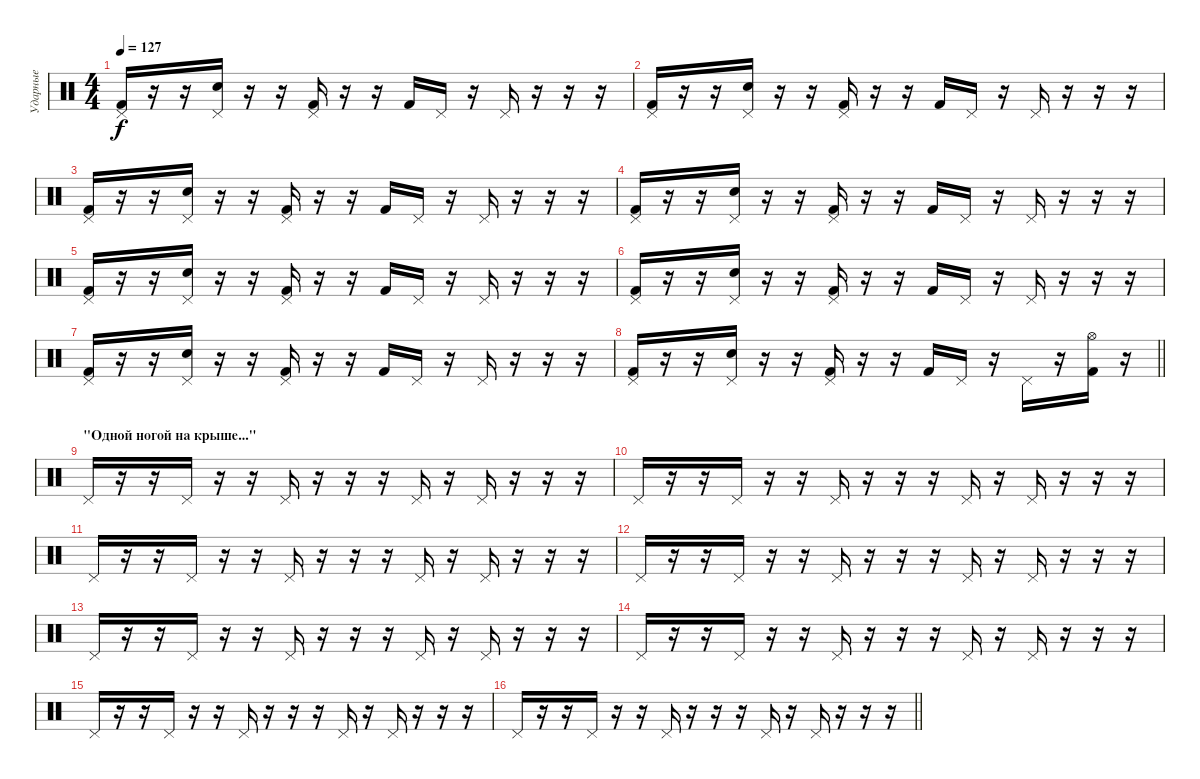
\track ("Ударные" "Ударные") {instrument percussion}
\staff {score}
\articulation defaults
\ts (4 4)
\tempo 127
\clef neutral
\ks c
("Pedal Hi-Hat (hit)" "Kick (hit) 2").16{dy f} r.16 r.16 ("Pedal Hi-Hat (hit)" "Hand Clap (hit)").16 r.16 r.16 ("Pedal Hi-Hat (hit)" "Kick (hit) 2").16 r.16 r.16 "Kick (hit) 2".16 "Pedal Hi-Hat (hit)".16 r.16 "Pedal Hi-Hat (hit)".16 r.16 r.16 r.16 |
("Pedal Hi-Hat (hit)" "Kick (hit) 2").16 r.16 r.16 ("Pedal Hi-Hat (hit)" "Hand Clap (hit)").16 r.16 r.16 ("Pedal Hi-Hat (hit)" "Kick (hit) 2").16 r.16 r.16 "Kick (hit) 2".16 "Pedal Hi-Hat (hit)".16 r.16 "Pedal Hi-Hat (hit)".16 r.16 r.16 r.16 |
("Pedal Hi-Hat (hit)" "Kick (hit) 2").16 r.16 r.16 ("Pedal Hi-Hat (hit)" "Hand Clap (hit)").16 r.16 r.16 ("Pedal Hi-Hat (hit)" "Kick (hit) 2").16 r.16 r.16 "Kick (hit) 2".16 "Pedal Hi-Hat (hit)".16 r.16 "Pedal Hi-Hat (hit)".16 r.16 r.16 r.16 |
("Pedal Hi-Hat (hit)" "Kick (hit) 2").16 r.16 r.16 ("Pedal Hi-Hat (hit)" "Hand Clap (hit)").16 r.16 r.16 ("Pedal Hi-Hat (hit)" "Kick (hit) 2").16 r.16 r.16 "Kick (hit) 2".16 "Pedal Hi-Hat (hit)".16 r.16 "Pedal Hi-Hat (hit)".16 r.16 r.16 r.16 |
("Pedal Hi-Hat (hit)" "Kick (hit) 2").16 r.16 r.16 ("Pedal Hi-Hat (hit)" "Hand Clap (hit)").16 r.16 r.16 ("Pedal Hi-Hat (hit)" "Kick (hit) 2").16 r.16 r.16 "Kick (hit) 2".16 "Pedal Hi-Hat (hit)".16 r.16 "Pedal Hi-Hat (hit)".16 r.16 r.16 r.16 |
("Pedal Hi-Hat (hit)" "Kick (hit) 2").16 r.16 r.16 ("Pedal Hi-Hat (hit)" "Hand Clap (hit)").16 r.16 r.16 ("Pedal Hi-Hat (hit)" "Kick (hit) 2").16 r.16 r.16 "Kick (hit) 2".16 "Pedal Hi-Hat (hit)".16 r.16 "Pedal Hi-Hat (hit)".16 r.16 r.16 r.16 |
("Pedal Hi-Hat (hit)" "Kick (hit) 2").16 r.16 r.16 ("Pedal Hi-Hat (hit)" "Hand Clap (hit)").16 r.16 r.16 ("Pedal Hi-Hat (hit)" "Kick (hit) 2").16 r.16 r.16 "Kick (hit) 2".16 "Pedal Hi-Hat (hit)".16 r.16 "Pedal Hi-Hat (hit)".16 r.16 r.16 r.16 |
\barLineRight lightlight
("Pedal Hi-Hat (hit)" "Kick (hit) 2").16 r.16 r.16 ("Pedal Hi-Hat (hit)" "Hand Clap (hit)").16 r.16 r.16 ("Pedal Hi-Hat (hit)" "Kick (hit) 2").16 r.16 r.16 "Kick (hit) 2".16 "Pedal Hi-Hat (hit)".16 r.16 "Pedal Hi-Hat (hit)".16 r.16 ("Hi-Hat (open)" "Kick (hit) 2").16 r.16 |
\section ("" "\"Одной ногой на крыше...\"")
"Pedal Hi-Hat (hit)".16 r.16 r.16 "Pedal Hi-Hat (hit)".16 r.16 r.16 "Pedal Hi-Hat (hit)".16 r.16 r.16 r.16 "Pedal Hi-Hat (hit)".16 r.16 "Pedal Hi-Hat (hit)".16 r.16 r.16 r.16 |
"Pedal Hi-Hat (hit)".16 r.16 r.16 "Pedal Hi-Hat (hit)".16 r.16 r.16 "Pedal Hi-Hat (hit)".16 r.16 r.16 r.16 "Pedal Hi-Hat (hit)".16 r.16 "Pedal Hi-Hat (hit)".16 r.16 r.16 r.16 |
"Pedal Hi-Hat (hit)".16 r.16 r.16 "Pedal Hi-Hat (hit)".16 r.16 r.16 "Pedal Hi-Hat (hit)".16 r.16 r.16 r.16 "Pedal Hi-Hat (hit)".16 r.16 "Pedal Hi-Hat (hit)".16 r.16 r.16 r.16 |
"Pedal Hi-Hat (hit)".16 r.16 r.16 "Pedal Hi-Hat (hit)".16 r.16 r.16 "Pedal Hi-Hat (hit)".16 r.16 r.16 r.16 "Pedal Hi-Hat (hit)".16 r.16 "Pedal Hi-Hat (hit)".16 r.16 r.16 r.16 |
"Pedal Hi-Hat (hit)".16 r.16 r.16 "Pedal Hi-Hat (hit)".16 r.16 r.16 "Pedal Hi-Hat (hit)".16 r.16 r.16 r.16 "Pedal Hi-Hat (hit)".16 r.16 "Pedal Hi-Hat (hit)".16 r.16 r.16 r.16 |
"Pedal Hi-Hat (hit)".16 r.16 r.16 "Pedal Hi-Hat (hit)".16 r.16 r.16 "Pedal Hi-Hat (hit)".16 r.16 r.16 r.16 "Pedal Hi-Hat (hit)".16 r.16 "Pedal Hi-Hat (hit)".16 r.16 r.16 r.16 |
"Pedal Hi-Hat (hit)".16 r.16 r.16 "Pedal Hi-Hat (hit)".16 r.16 r.16 "Pedal Hi-Hat (hit)".16 r.16 r.16 r.16 "Pedal Hi-Hat (hit)".16 r.16 "Pedal Hi-Hat (hit)".16 r.16 r.16 r.16 |
\barLineRight lightlight "Pedal Hi-Hat (hit)".16
r.16 r.16 "Pedal Hi-Hat (hit)".16 r.16 r.16 "Pedal Hi-Hat (hit)".16 r.16 r.16 r.16 "Pedal Hi-Hat (hit)".16 r.16 "Pedal Hi-Hat (hit)".16 r.16 r.16 r.16
